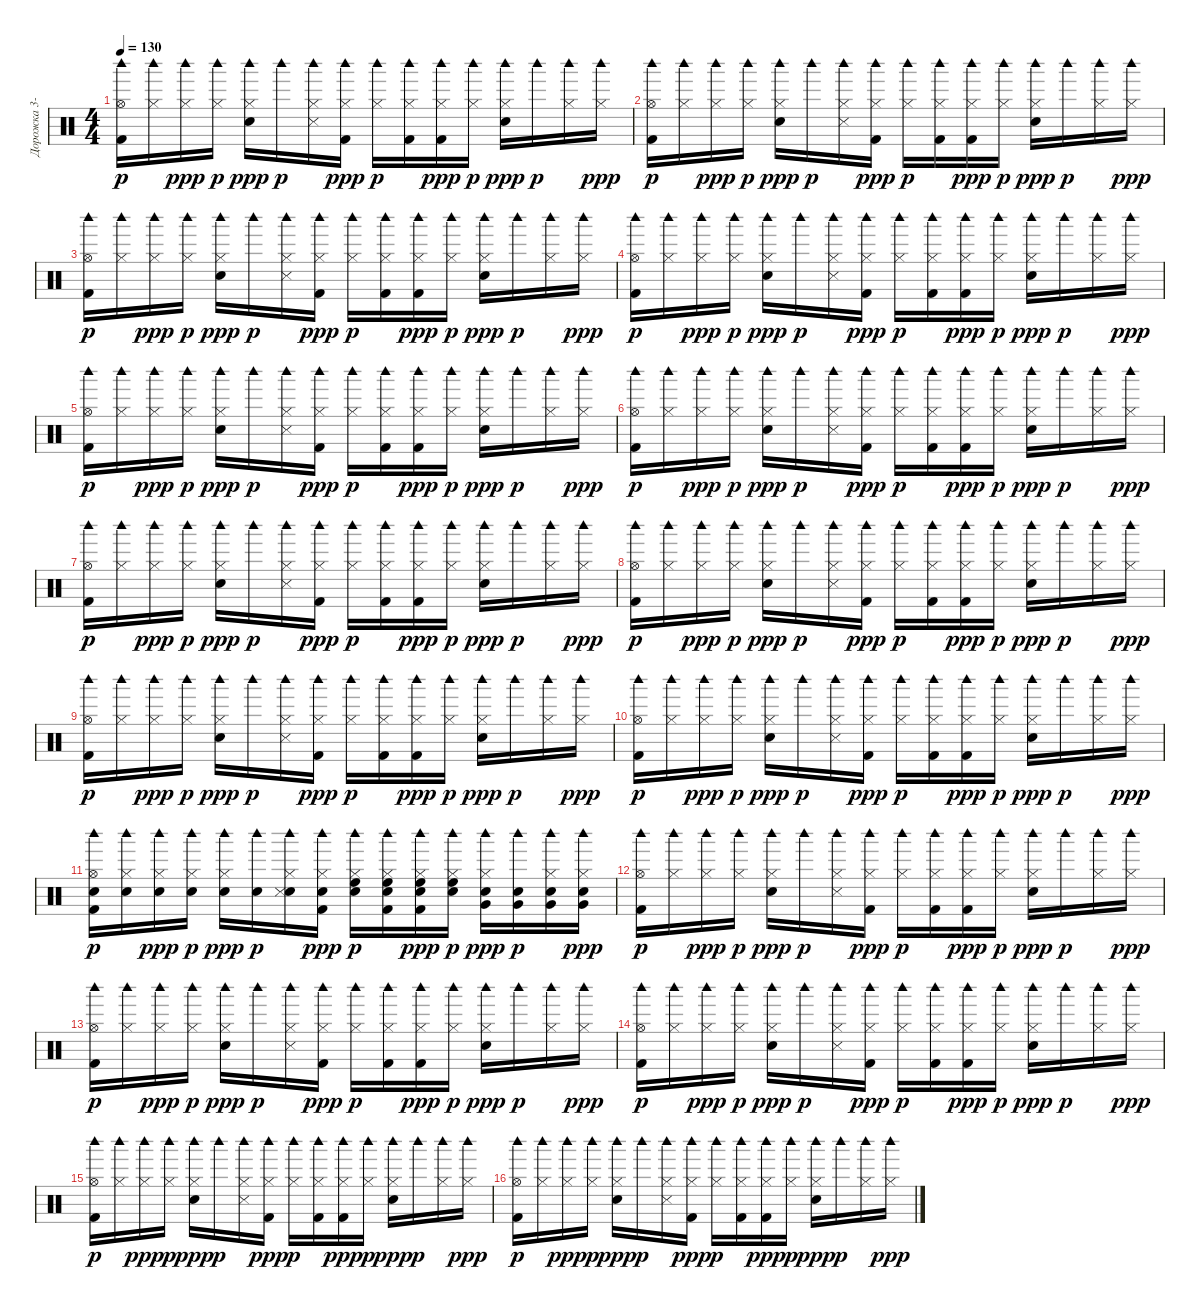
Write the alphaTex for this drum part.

\track ("Дорожка 3-4-5" "Дорожка 3-") {instrument percussion}
\staff {score}
\articulation defaults
\ts (4 4)
\tempo 130
\clef neutral
\ks c
("Kick (hit) 2" "Hi-Hat (open)" "Woodblock high (hit)").16{dy p} ("Hi-Hat (closed)" "Woodblock high (hit)").16 ("Hi-Hat (closed)" "Woodblock high (hit)").16{dy ppp} ("Hi-Hat (closed)" "Woodblock high (hit)").16{dy p} ("Electric Snare (hit)" "Hi-Hat (closed)" "Woodblock high (hit)").16{dy ppp} "Woodblock high (hit)".16{dy p} ("Snare (side stick) 3" "Hi-Hat (closed)" "Woodblock high (hit)").16 ("Kick (hit) 2" "Hi-Hat (closed)" "Woodblock high (hit)").16{dy ppp} ("Hi-Hat (closed)" "Woodblock high (hit)").16{dy p} ("Kick (hit) 2" "Hi-Hat (closed)" "Woodblock high (hit)").16 ("Kick (hit) 2" "Hi-Hat (closed)" "Woodblock high (hit)").16{dy ppp} ("Hi-Hat (closed)" "Woodblock high (hit)").16{dy p} ("Electric Snare (hit)" "Hi-Hat (closed)" "Woodblock high (hit)").16{dy ppp} "Woodblock high (hit)".16{dy p} ("Hi-Hat (closed)" "Woodblock high (hit)").16 ("Hi-Hat (closed)" "Woodblock high (hit)").16{dy ppp} |
("Kick (hit) 2" "Hi-Hat (open)" "Woodblock high (hit)").16{dy p} ("Hi-Hat (closed)" "Woodblock high (hit)").16 ("Hi-Hat (closed)" "Woodblock high (hit)").16{dy ppp} ("Hi-Hat (closed)" "Woodblock high (hit)").16{dy p} ("Electric Snare (hit)" "Hi-Hat (closed)" "Woodblock high (hit)").16{dy ppp} "Woodblock high (hit)".16{dy p} ("Snare (side stick) 3" "Hi-Hat (closed)" "Woodblock high (hit)").16 ("Kick (hit) 2" "Hi-Hat (closed)" "Woodblock high (hit)").16{dy ppp} ("Hi-Hat (closed)" "Woodblock high (hit)").16{dy p} ("Kick (hit) 2" "Hi-Hat (closed)" "Woodblock high (hit)").16 ("Kick (hit) 2" "Hi-Hat (closed)" "Woodblock high (hit)").16{dy ppp} ("Hi-Hat (closed)" "Woodblock high (hit)").16{dy p} ("Electric Snare (hit)" "Hi-Hat (closed)" "Woodblock high (hit)").16{dy ppp} "Woodblock high (hit)".16{dy p} ("Hi-Hat (closed)" "Woodblock high (hit)").16 ("Hi-Hat (closed)" "Woodblock high (hit)").16{dy ppp} |
("Kick (hit) 2" "Hi-Hat (open)" "Woodblock high (hit)").16{dy p} ("Hi-Hat (closed)" "Woodblock high (hit)").16 ("Hi-Hat (closed)" "Woodblock high (hit)").16{dy ppp} ("Hi-Hat (closed)" "Woodblock high (hit)").16{dy p} ("Electric Snare (hit)" "Hi-Hat (closed)" "Woodblock high (hit)").16{dy ppp} "Woodblock high (hit)".16{dy p} ("Snare (side stick) 3" "Hi-Hat (closed)" "Woodblock high (hit)").16 ("Kick (hit) 2" "Hi-Hat (closed)" "Woodblock high (hit)").16{dy ppp} ("Hi-Hat (closed)" "Woodblock high (hit)").16{dy p} ("Kick (hit) 2" "Hi-Hat (closed)" "Woodblock high (hit)").16 ("Kick (hit) 2" "Hi-Hat (closed)" "Woodblock high (hit)").16{dy ppp} ("Hi-Hat (closed)" "Woodblock high (hit)").16{dy p} ("Electric Snare (hit)" "Hi-Hat (closed)" "Woodblock high (hit)").16{dy ppp} "Woodblock high (hit)".16{dy p} ("Hi-Hat (closed)" "Woodblock high (hit)").16 ("Hi-Hat (closed)" "Woodblock high (hit)").16{dy ppp} |
("Kick (hit) 2" "Hi-Hat (open)" "Woodblock high (hit)").16{dy p} ("Hi-Hat (closed)" "Woodblock high (hit)").16 ("Hi-Hat (closed)" "Woodblock high (hit)").16{dy ppp} ("Hi-Hat (closed)" "Woodblock high (hit)").16{dy p} ("Electric Snare (hit)" "Hi-Hat (closed)" "Woodblock high (hit)").16{dy ppp} "Woodblock high (hit)".16{dy p} ("Snare (side stick) 3" "Hi-Hat (closed)" "Woodblock high (hit)").16 ("Kick (hit) 2" "Hi-Hat (closed)" "Woodblock high (hit)").16{dy ppp} ("Hi-Hat (closed)" "Woodblock high (hit)").16{dy p} ("Kick (hit) 2" "Hi-Hat (closed)" "Woodblock high (hit)").16 ("Kick (hit) 2" "Hi-Hat (closed)" "Woodblock high (hit)").16{dy ppp} ("Hi-Hat (closed)" "Woodblock high (hit)").16{dy p} ("Electric Snare (hit)" "Hi-Hat (closed)" "Woodblock high (hit)").16{dy ppp} "Woodblock high (hit)".16{dy p} ("Hi-Hat (closed)" "Woodblock high (hit)").16 ("Hi-Hat (closed)" "Woodblock high (hit)").16{dy ppp} |
("Kick (hit) 2" "Hi-Hat (open)" "Woodblock high (hit)").16{dy p} ("Hi-Hat (closed)" "Woodblock high (hit)").16 ("Hi-Hat (closed)" "Woodblock high (hit)").16{dy ppp} ("Hi-Hat (closed)" "Woodblock high (hit)").16{dy p} ("Electric Snare (hit)" "Hi-Hat (closed)" "Woodblock high (hit)").16{dy ppp} "Woodblock high (hit)".16{dy p} ("Snare (side stick) 3" "Hi-Hat (closed)" "Woodblock high (hit)").16 ("Kick (hit) 2" "Hi-Hat (closed)" "Woodblock high (hit)").16{dy ppp} ("Hi-Hat (closed)" "Woodblock high (hit)").16{dy p} ("Kick (hit) 2" "Hi-Hat (closed)" "Woodblock high (hit)").16 ("Kick (hit) 2" "Hi-Hat (closed)" "Woodblock high (hit)").16{dy ppp} ("Hi-Hat (closed)" "Woodblock high (hit)").16{dy p} ("Electric Snare (hit)" "Hi-Hat (closed)" "Woodblock high (hit)").16{dy ppp} "Woodblock high (hit)".16{dy p} ("Hi-Hat (closed)" "Woodblock high (hit)").16 ("Hi-Hat (closed)" "Woodblock high (hit)").16{dy ppp} |
("Kick (hit) 2" "Hi-Hat (open)" "Woodblock high (hit)").16{dy p} ("Hi-Hat (closed)" "Woodblock high (hit)").16 ("Hi-Hat (closed)" "Woodblock high (hit)").16{dy ppp} ("Hi-Hat (closed)" "Woodblock high (hit)").16{dy p} ("Electric Snare (hit)" "Hi-Hat (closed)" "Woodblock high (hit)").16{dy ppp} "Woodblock high (hit)".16{dy p} ("Snare (side stick) 3" "Hi-Hat (closed)" "Woodblock high (hit)").16 ("Kick (hit) 2" "Hi-Hat (closed)" "Woodblock high (hit)").16{dy ppp} ("Hi-Hat (closed)" "Woodblock high (hit)").16{dy p} ("Kick (hit) 2" "Hi-Hat (closed)" "Woodblock high (hit)").16 ("Kick (hit) 2" "Hi-Hat (closed)" "Woodblock high (hit)").16{dy ppp} ("Hi-Hat (closed)" "Woodblock high (hit)").16{dy p} ("Electric Snare (hit)" "Hi-Hat (closed)" "Woodblock high (hit)").16{dy ppp} "Woodblock high (hit)".16{dy p} ("Hi-Hat (closed)" "Woodblock high (hit)").16 ("Hi-Hat (closed)" "Woodblock high (hit)").16{dy ppp} |
("Kick (hit) 2" "Hi-Hat (open)" "Woodblock high (hit)").16{dy p} ("Hi-Hat (closed)" "Woodblock high (hit)").16 ("Hi-Hat (closed)" "Woodblock high (hit)").16{dy ppp} ("Hi-Hat (closed)" "Woodblock high (hit)").16{dy p} ("Electric Snare (hit)" "Hi-Hat (closed)" "Woodblock high (hit)").16{dy ppp} "Woodblock high (hit)".16{dy p} ("Snare (side stick) 3" "Hi-Hat (closed)" "Woodblock high (hit)").16 ("Kick (hit) 2" "Hi-Hat (closed)" "Woodblock high (hit)").16{dy ppp} ("Hi-Hat (closed)" "Woodblock high (hit)").16{dy p} ("Kick (hit) 2" "Hi-Hat (closed)" "Woodblock high (hit)").16 ("Kick (hit) 2" "Hi-Hat (closed)" "Woodblock high (hit)").16{dy ppp} ("Hi-Hat (closed)" "Woodblock high (hit)").16{dy p} ("Electric Snare (hit)" "Hi-Hat (closed)" "Woodblock high (hit)").16{dy ppp} "Woodblock high (hit)".16{dy p} ("Hi-Hat (closed)" "Woodblock high (hit)").16 ("Hi-Hat (closed)" "Woodblock high (hit)").16{dy ppp} |
("Kick (hit) 2" "Hi-Hat (open)" "Woodblock high (hit)").16{dy p} ("Hi-Hat (closed)" "Woodblock high (hit)").16 ("Hi-Hat (closed)" "Woodblock high (hit)").16{dy ppp} ("Hi-Hat (closed)" "Woodblock high (hit)").16{dy p} ("Electric Snare (hit)" "Hi-Hat (closed)" "Woodblock high (hit)").16{dy ppp} "Woodblock high (hit)".16{dy p} ("Snare (side stick) 3" "Hi-Hat (closed)" "Woodblock high (hit)").16 ("Kick (hit) 2" "Hi-Hat (closed)" "Woodblock high (hit)").16{dy ppp} ("Hi-Hat (closed)" "Woodblock high (hit)").16{dy p} ("Kick (hit) 2" "Hi-Hat (closed)" "Woodblock high (hit)").16 ("Kick (hit) 2" "Hi-Hat (closed)" "Woodblock high (hit)").16{dy ppp} ("Hi-Hat (closed)" "Woodblock high (hit)").16{dy p} ("Electric Snare (hit)" "Hi-Hat (closed)" "Woodblock high (hit)").16{dy ppp} "Woodblock high (hit)".16{dy p} ("Hi-Hat (closed)" "Woodblock high (hit)").16 ("Hi-Hat (closed)" "Woodblock high (hit)").16{dy ppp} |
("Kick (hit) 2" "Hi-Hat (open)" "Woodblock high (hit)").16{dy p} ("Hi-Hat (closed)" "Woodblock high (hit)").16 ("Hi-Hat (closed)" "Woodblock high (hit)").16{dy ppp} ("Hi-Hat (closed)" "Woodblock high (hit)").16{dy p} ("Electric Snare (hit)" "Hi-Hat (closed)" "Woodblock high (hit)").16{dy ppp} "Woodblock high (hit)".16{dy p} ("Snare (side stick) 3" "Hi-Hat (closed)" "Woodblock high (hit)").16 ("Kick (hit) 2" "Hi-Hat (closed)" "Woodblock high (hit)").16{dy ppp} ("Hi-Hat (closed)" "Woodblock high (hit)").16{dy p} ("Kick (hit) 2" "Hi-Hat (closed)" "Woodblock high (hit)").16 ("Kick (hit) 2" "Hi-Hat (closed)" "Woodblock high (hit)").16{dy ppp} ("Hi-Hat (closed)" "Woodblock high (hit)").16{dy p} ("Electric Snare (hit)" "Hi-Hat (closed)" "Woodblock high (hit)").16{dy ppp} "Woodblock high (hit)".16{dy p} ("Hi-Hat (closed)" "Woodblock high (hit)").16 ("Hi-Hat (closed)" "Woodblock high (hit)").16{dy ppp} |
("Kick (hit) 2" "Hi-Hat (open)" "Woodblock high (hit)").16{dy p} ("Hi-Hat (closed)" "Woodblock high (hit)").16 ("Hi-Hat (closed)" "Woodblock high (hit)").16{dy ppp} ("Hi-Hat (closed)" "Woodblock high (hit)").16{dy p} ("Electric Snare (hit)" "Hi-Hat (closed)" "Woodblock high (hit)").16{dy ppp} "Woodblock high (hit)".16{dy p} ("Snare (side stick) 3" "Hi-Hat (closed)" "Woodblock high (hit)").16 ("Kick (hit) 2" "Hi-Hat (closed)" "Woodblock high (hit)").16{dy ppp} ("Hi-Hat (closed)" "Woodblock high (hit)").16{dy p} ("Kick (hit) 2" "Hi-Hat (closed)" "Woodblock high (hit)").16 ("Kick (hit) 2" "Hi-Hat (closed)" "Woodblock high (hit)").16{dy ppp} ("Hi-Hat (closed)" "Woodblock high (hit)").16{dy p} ("Electric Snare (hit)" "Hi-Hat (closed)" "Woodblock high (hit)").16{dy ppp} "Woodblock high (hit)".16{dy p} ("Hi-Hat (closed)" "Woodblock high (hit)").16 ("Hi-Hat (closed)" "Woodblock high (hit)").16{dy ppp} |
("Kick (hit) 2" "Electric Snare (hit)" "Hi-Hat (open)" "Woodblock high (hit)").16{dy p} ("Electric Snare (hit)" "Hi-Hat (closed)" "Woodblock high (hit)").16 ("Electric Snare (hit)" "Hi-Hat (closed)" "Woodblock high (hit)").16{dy ppp} ("Electric Snare (hit)" "Hi-Hat (closed)" "Woodblock high (hit)").16{dy p} ("Electric Snare (hit)" "Hi-Hat (closed)" "Woodblock high (hit)").16{dy ppp} ("Electric Snare (hit)" "Woodblock high (hit)").16{dy p} ("Electric Snare (hit)" "Snare (side stick) 3" "Hi-Hat (closed)" "Woodblock high (hit)").16 ("Electric Snare (hit)" "Kick (hit) 2" "Hi-Hat (closed)" "Woodblock high (hit)").16{dy ppp} ("High Floor Tom (hit)" "Electric Snare (hit)" "Hi-Hat (closed)" "Woodblock high (hit)").16{dy p} ("High Floor Tom (hit)" "Electric Snare (hit)" "Kick (hit) 2" "Hi-Hat (closed)" "Woodblock high (hit)").16 ("High Floor Tom (hit)" "Electric Snare (hit)" "Kick (hit) 2" "Hi-Hat (closed)" "Woodblock high (hit)").16{dy ppp} ("High Floor Tom (hit)" "Electric Snare (hit)" "Hi-Hat (closed)" "Woodblock high (hit)").16{dy p} ("Very Low Tom (hit)" "Electric Snare (hit)" "Hi-Hat (closed)" "Woodblock high (hit)").16{dy ppp} ("Very Low Tom (hit)" "Electric Snare (hit)" "Woodblock high (hit)").16{dy p} ("Very Low Tom (hit)" "Electric Snare (hit)" "Hi-Hat (closed)" "Woodblock high (hit)").16 ("Very Low Tom (hit)" "Electric Snare (hit)" "Hi-Hat (closed)" "Woodblock high (hit)").16{dy ppp} |
("Kick (hit) 2" "Hi-Hat (open)" "Woodblock high (hit)").16{dy p} ("Hi-Hat (closed)" "Woodblock high (hit)").16 ("Hi-Hat (closed)" "Woodblock high (hit)").16{dy ppp} ("Hi-Hat (closed)" "Woodblock high (hit)").16{dy p} ("Electric Snare (hit)" "Hi-Hat (closed)" "Woodblock high (hit)").16{dy ppp} "Woodblock high (hit)".16{dy p} ("Snare (side stick) 3" "Hi-Hat (closed)" "Woodblock high (hit)").16 ("Kick (hit) 2" "Hi-Hat (closed)" "Woodblock high (hit)").16{dy ppp} ("Hi-Hat (closed)" "Woodblock high (hit)").16{dy p} ("Kick (hit) 2" "Hi-Hat (closed)" "Woodblock high (hit)").16 ("Kick (hit) 2" "Hi-Hat (closed)" "Woodblock high (hit)").16{dy ppp} ("Hi-Hat (closed)" "Woodblock high (hit)").16{dy p} ("Electric Snare (hit)" "Hi-Hat (closed)" "Woodblock high (hit)").16{dy ppp} "Woodblock high (hit)".16{dy p} ("Hi-Hat (closed)" "Woodblock high (hit)").16 ("Hi-Hat (closed)" "Woodblock high (hit)").16{dy ppp} |
("Kick (hit) 2" "Hi-Hat (open)" "Woodblock high (hit)").16{dy p} ("Hi-Hat (closed)" "Woodblock high (hit)").16 ("Hi-Hat (closed)" "Woodblock high (hit)").16{dy ppp} ("Hi-Hat (closed)" "Woodblock high (hit)").16{dy p} ("Electric Snare (hit)" "Hi-Hat (closed)" "Woodblock high (hit)").16{dy ppp} "Woodblock high (hit)".16{dy p} ("Snare (side stick) 3" "Hi-Hat (closed)" "Woodblock high (hit)").16 ("Kick (hit) 2" "Hi-Hat (closed)" "Woodblock high (hit)").16{dy ppp} ("Hi-Hat (closed)" "Woodblock high (hit)").16{dy p} ("Kick (hit) 2" "Hi-Hat (closed)" "Woodblock high (hit)").16 ("Kick (hit) 2" "Hi-Hat (closed)" "Woodblock high (hit)").16{dy ppp} ("Hi-Hat (closed)" "Woodblock high (hit)").16{dy p} ("Electric Snare (hit)" "Hi-Hat (closed)" "Woodblock high (hit)").16{dy ppp} "Woodblock high (hit)".16{dy p} ("Hi-Hat (closed)" "Woodblock high (hit)").16 ("Hi-Hat (closed)" "Woodblock high (hit)").16{dy ppp} |
("Kick (hit) 2" "Hi-Hat (open)" "Woodblock high (hit)").16{dy p} ("Hi-Hat (closed)" "Woodblock high (hit)").16 ("Hi-Hat (closed)" "Woodblock high (hit)").16{dy ppp} ("Hi-Hat (closed)" "Woodblock high (hit)").16{dy p} ("Electric Snare (hit)" "Hi-Hat (closed)" "Woodblock high (hit)").16{dy ppp} "Woodblock high (hit)".16{dy p} ("Snare (side stick) 3" "Hi-Hat (closed)" "Woodblock high (hit)").16 ("Kick (hit) 2" "Hi-Hat (closed)" "Woodblock high (hit)").16{dy ppp} ("Hi-Hat (closed)" "Woodblock high (hit)").16{dy p} ("Kick (hit) 2" "Hi-Hat (closed)" "Woodblock high (hit)").16 ("Kick (hit) 2" "Hi-Hat (closed)" "Woodblock high (hit)").16{dy ppp} ("Hi-Hat (closed)" "Woodblock high (hit)").16{dy p} ("Electric Snare (hit)" "Hi-Hat (closed)" "Woodblock high (hit)").16{dy ppp} "Woodblock high (hit)".16{dy p} ("Hi-Hat (closed)" "Woodblock high (hit)").16 ("Hi-Hat (closed)" "Woodblock high (hit)").16{dy ppp} |
("Kick (hit) 2" "Hi-Hat (open)" "Woodblock high (hit)").16{dy p} ("Hi-Hat (closed)" "Woodblock high (hit)").16 ("Hi-Hat (closed)" "Woodblock high (hit)").16{dy ppp} ("Hi-Hat (closed)" "Woodblock high (hit)").16{dy p} ("Electric Snare (hit)" "Hi-Hat (closed)" "Woodblock high (hit)").16{dy ppp} "Woodblock high (hit)".16{dy p} ("Snare (side stick) 3" "Hi-Hat (closed)" "Woodblock high (hit)").16 ("Kick (hit) 2" "Hi-Hat (closed)" "Woodblock high (hit)").16{dy ppp} ("Hi-Hat (closed)" "Woodblock high (hit)").16{dy p} ("Kick (hit) 2" "Hi-Hat (closed)" "Woodblock high (hit)").16 ("Kick (hit) 2" "Hi-Hat (closed)" "Woodblock high (hit)").16{dy ppp} ("Hi-Hat (closed)" "Woodblock high (hit)").16{dy p} ("Electric Snare (hit)" "Hi-Hat (closed)" "Woodblock high (hit)").16{dy ppp} "Woodblock high (hit)".16{dy p} ("Hi-Hat (closed)" "Woodblock high (hit)").16 ("Hi-Hat (closed)" "Woodblock high (hit)").16{dy ppp} |
("Kick (hit) 2" "Hi-Hat (open)" "Woodblock high (hit)").16{dy p} ("Hi-Hat (closed)" "Woodblock high (hit)").16 ("Hi-Hat (closed)" "Woodblock high (hit)").16{dy ppp} ("Hi-Hat (closed)" "Woodblock high (hit)").16{dy p} ("Electric Snare (hit)" "Hi-Hat (closed)" "Woodblock high (hit)").16{dy ppp} "Woodblock high (hit)".16{dy p} ("Snare (side stick) 3" "Hi-Hat (closed)" "Woodblock high (hit)").16 ("Kick (hit) 2" "Hi-Hat (closed)" "Woodblock high (hit)").16{dy ppp} ("Hi-Hat (closed)" "Woodblock high (hit)").16{dy p} ("Kick (hit) 2" "Hi-Hat (closed)" "Woodblock high (hit)").16 ("Kick (hit) 2" "Hi-Hat (closed)" "Woodblock high (hit)").16{dy ppp} ("Hi-Hat (closed)" "Woodblock high (hit)").16{dy p} ("Electric Snare (hit)" "Hi-Hat (closed)" "Woodblock high (hit)").16{dy ppp} "Woodblock high (hit)".16{dy p} ("Hi-Hat (closed)" "Woodblock high (hit)").16 ("Hi-Hat (closed)" "Woodblock high (hit)").16{dy ppp}
